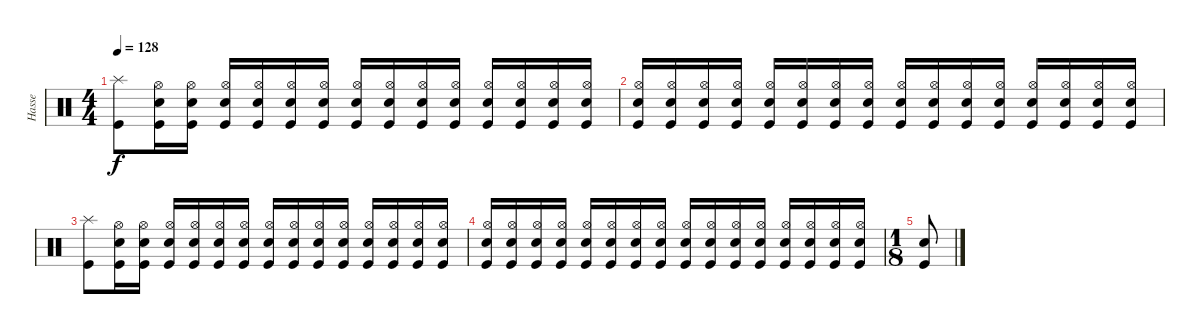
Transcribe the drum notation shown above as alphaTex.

\track ("Hasse" "Hasse") {instrument percussion}
\staff {score}
\articulation defaults
\ts (4 4)
\tempo 128
\clef neutral
\ks c
("Splash (hit)" "Kick (hit)").8{dy f} ("Hi-Hat (open)" "Snare (hit) 2" "Kick (hit)").16 ("Hi-Hat (open)" "Snare (hit) 2" "Kick (hit)").16 ("Hi-Hat (open)" "Snare (hit) 2" "Kick (hit)").16 ("Hi-Hat (open)" "Snare (hit) 2" "Kick (hit)").16 ("Hi-Hat (open)" "Snare (hit) 2" "Kick (hit)").16 ("Hi-Hat (open)" "Snare (hit) 2" "Kick (hit)").16 ("Hi-Hat (open)" "Snare (hit) 2" "Kick (hit)").16 ("Hi-Hat (open)" "Snare (hit) 2" "Kick (hit)").16 ("Hi-Hat (open)" "Snare (hit) 2" "Kick (hit)").16 ("Hi-Hat (open)" "Snare (hit) 2" "Kick (hit)").16 ("Hi-Hat (open)" "Snare (hit) 2" "Kick (hit)").16 ("Hi-Hat (open)" "Snare (hit) 2" "Kick (hit)").16 ("Hi-Hat (open)" "Snare (hit) 2" "Kick (hit)").16 ("Hi-Hat (open)" "Snare (hit) 2" "Kick (hit)").16 |
("Hi-Hat (open)" "Snare (hit) 2" "Kick (hit)").16 ("Hi-Hat (open)" "Snare (hit) 2" "Kick (hit)").16 ("Hi-Hat (open)" "Snare (hit) 2" "Kick (hit)").16 ("Hi-Hat (open)" "Snare (hit) 2" "Kick (hit)").16 ("Hi-Hat (open)" "Snare (hit) 2" "Kick (hit)").16 ("Hi-Hat (open)" "Snare (hit) 2" "Kick (hit)").16 ("Hi-Hat (open)" "Snare (hit) 2" "Kick (hit)").16 ("Hi-Hat (open)" "Snare (hit) 2" "Kick (hit)").16 ("Hi-Hat (open)" "Snare (hit) 2" "Kick (hit)").16 ("Hi-Hat (open)" "Snare (hit) 2" "Kick (hit)").16 ("Hi-Hat (open)" "Snare (hit) 2" "Kick (hit)").16 ("Hi-Hat (open)" "Snare (hit) 2" "Kick (hit)").16 ("Hi-Hat (open)" "Snare (hit) 2" "Kick (hit)").16 ("Hi-Hat (open)" "Snare (hit) 2" "Kick (hit)").16 ("Hi-Hat (open)" "Snare (hit) 2" "Kick (hit)").16 ("Hi-Hat (open)" "Snare (hit) 2" "Kick (hit)").16 |
("Splash (hit)" "Kick (hit)").8 ("Hi-Hat (open)" "Snare (hit) 2" "Kick (hit)").16 ("Hi-Hat (open)" "Snare (hit) 2" "Kick (hit)").16 ("Hi-Hat (open)" "Snare (hit) 2" "Kick (hit)").16 ("Hi-Hat (open)" "Snare (hit) 2" "Kick (hit)").16 ("Hi-Hat (open)" "Snare (hit) 2" "Kick (hit)").16 ("Hi-Hat (open)" "Snare (hit) 2" "Kick (hit)").16 ("Hi-Hat (open)" "Snare (hit) 2" "Kick (hit)").16 ("Hi-Hat (open)" "Snare (hit) 2" "Kick (hit)").16 ("Hi-Hat (open)" "Snare (hit) 2" "Kick (hit)").16 ("Hi-Hat (open)" "Snare (hit) 2" "Kick (hit)").16 ("Hi-Hat (open)" "Snare (hit) 2" "Kick (hit)").16 ("Hi-Hat (open)" "Snare (hit) 2" "Kick (hit)").16 ("Hi-Hat (open)" "Snare (hit) 2" "Kick (hit)").16 ("Hi-Hat (open)" "Snare (hit) 2" "Kick (hit)").16 |
("Hi-Hat (open)" "Snare (hit) 2" "Kick (hit)").16 ("Hi-Hat (open)" "Snare (hit) 2" "Kick (hit)").16 ("Hi-Hat (open)" "Snare (hit) 2" "Kick (hit)").16 ("Hi-Hat (open)" "Snare (hit) 2" "Kick (hit)").16 ("Hi-Hat (open)" "Snare (hit) 2" "Kick (hit)").16 ("Hi-Hat (open)" "Snare (hit) 2" "Kick (hit)").16 ("Hi-Hat (open)" "Snare (hit) 2" "Kick (hit)").16 ("Hi-Hat (open)" "Snare (hit) 2" "Kick (hit)").16 ("Hi-Hat (open)" "Snare (hit) 2" "Kick (hit)").16 ("Hi-Hat (open)" "Snare (hit) 2" "Kick (hit)").16 ("Hi-Hat (open)" "Snare (hit) 2" "Kick (hit)").16 ("Hi-Hat (open)" "Snare (hit) 2" "Kick (hit)").16 ("Hi-Hat (open)" "Snare (hit) 2" "Kick (hit)").16 ("Hi-Hat (open)" "Snare (hit) 2" "Kick (hit)").16 ("Hi-Hat (open)" "Snare (hit) 2" "Kick (hit)").16 ("Hi-Hat (open)" "Snare (hit) 2" "Kick (hit)").16 |
\ts (1 8)
("Snare (hit) 2" "Kick (hit)").8
